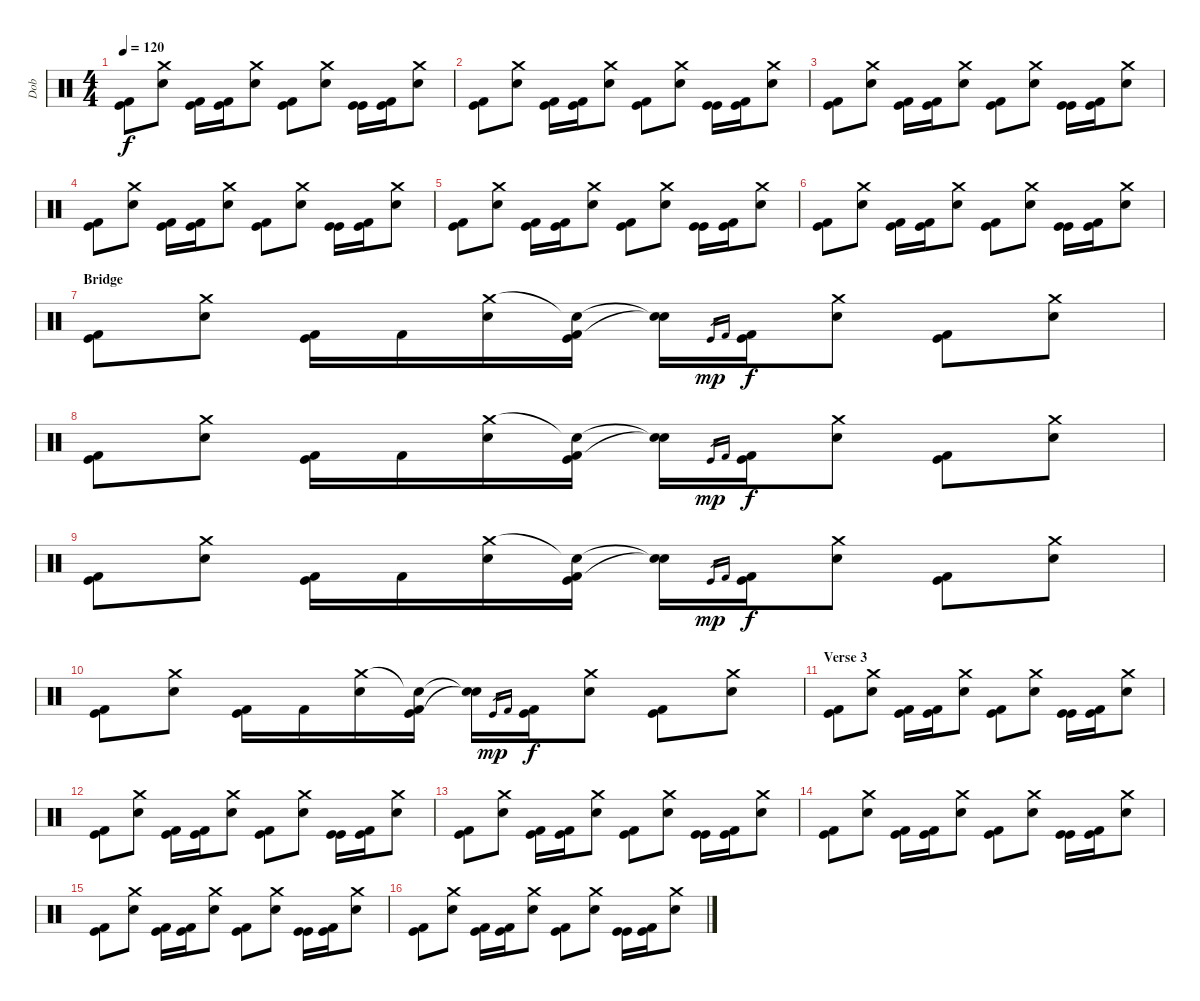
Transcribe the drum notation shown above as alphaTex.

\track ("Dob" "Dob") {instrument percussion}
\staff {score}
\articulation defaults
\ts (4 4)
\tempo 120
\clef neutral
\ks c
("Kick (hit)" "Kick (hit) 2").8{dy f} ("Crash medium (hit)" "Snare (hit) 2").8 ("Kick (hit)" "Kick (hit) 2").16 ("Kick (hit)" "Kick (hit) 2").16 ("Crash medium (hit)" "Snare (hit) 2").8 ("Kick (hit)" "Kick (hit) 2").8 ("Crash medium (hit)" "Snare (hit) 2").8 ("Kick (hit)" "Kick (hit)").16 ("Kick (hit)" "Kick (hit) 2").16 ("Crash medium (hit)" "Snare (hit) 2").8 |
("Kick (hit)" "Kick (hit) 2").8 ("Crash medium (hit)" "Snare (hit) 2").8 ("Kick (hit)" "Kick (hit) 2").16 ("Kick (hit)" "Kick (hit) 2").16 ("Crash medium (hit)" "Snare (hit) 2").8 ("Kick (hit)" "Kick (hit) 2").8 ("Crash medium (hit)" "Snare (hit) 2").8 ("Kick (hit)" "Kick (hit)").16 ("Kick (hit)" "Kick (hit) 2").16 ("Crash medium (hit)" "Snare (hit) 2").8 |
("Kick (hit)" "Kick (hit) 2").8 ("Crash medium (hit)" "Snare (hit) 2").8 ("Kick (hit)" "Kick (hit) 2").16 ("Kick (hit)" "Kick (hit) 2").16 ("Crash medium (hit)" "Snare (hit) 2").8 ("Kick (hit)" "Kick (hit) 2").8 ("Crash medium (hit)" "Snare (hit) 2").8 ("Kick (hit)" "Kick (hit)").16 ("Kick (hit)" "Kick (hit) 2").16 ("Crash medium (hit)" "Snare (hit) 2").8 |
("Kick (hit)" "Kick (hit) 2").8 ("Crash medium (hit)" "Snare (hit) 2").8 ("Kick (hit)" "Kick (hit) 2").16 ("Kick (hit)" "Kick (hit) 2").16 ("Crash medium (hit)" "Snare (hit) 2").8 ("Kick (hit)" "Kick (hit) 2").8 ("Crash medium (hit)" "Snare (hit) 2").8 ("Kick (hit)" "Kick (hit)").16 ("Kick (hit)" "Kick (hit) 2").16 ("Crash medium (hit)" "Snare (hit) 2").8 |
("Kick (hit)" "Kick (hit) 2").8 ("Crash medium (hit)" "Snare (hit) 2").8 ("Kick (hit)" "Kick (hit) 2").16 ("Kick (hit)" "Kick (hit) 2").16 ("Crash medium (hit)" "Snare (hit) 2").8 ("Kick (hit)" "Kick (hit) 2").8 ("Crash medium (hit)" "Snare (hit) 2").8 ("Kick (hit)" "Kick (hit)").16 ("Kick (hit)" "Kick (hit) 2").16 ("Crash medium (hit)" "Snare (hit) 2").8 |
("Kick (hit)" "Kick (hit) 2").8 ("Crash medium (hit)" "Snare (hit) 2").8 ("Kick (hit)" "Kick (hit) 2").16 ("Kick (hit)" "Kick (hit) 2").16 ("Crash medium (hit)" "Snare (hit) 2").8 ("Kick (hit)" "Kick (hit) 2").8 ("Crash medium (hit)" "Snare (hit) 2").8 ("Kick (hit)" "Kick (hit)").16 ("Kick (hit)" "Kick (hit) 2").16 ("Crash medium (hit)" "Snare (hit) 2").8 |
\section ("" "Bridge")
("Kick (hit)" "Kick (hit) 2").8 ("Crash medium (hit)" "Snare (hit) 2").8 ("Kick (hit)" "Kick (hit) 2").16 "Kick (hit) 2".16 ("Crash medium (hit)" "Snare (hit) 2").16 ("Snare (hit)"{t} "Kick (hit)" "Kick (hit) 2").16 ("Snare (hit)"{t} "Snare (hit)"{t}).16 "Kick (hit)".16{gr dy mp} "Kick (hit) 2".16{gr} ("Kick (hit)" "Kick (hit) 2").16{dy f} ("Crash medium (hit)" "Snare (hit) 2").8 ("Kick (hit)" "Kick (hit) 2").8 ("Crash medium (hit)" "Snare (hit) 2").8 |
("Kick (hit)" "Kick (hit) 2").8 ("Crash medium (hit)" "Snare (hit) 2").8 ("Kick (hit)" "Kick (hit) 2").16 "Kick (hit) 2".16 ("Crash medium (hit)" "Snare (hit) 2").16 ("Snare (hit)"{t} "Kick (hit)" "Kick (hit) 2").16 ("Snare (hit)"{t} "Snare (hit)"{t}).16 "Kick (hit)".16{gr dy mp} "Kick (hit) 2".16{gr} ("Kick (hit)" "Kick (hit) 2").16{dy f} ("Crash medium (hit)" "Snare (hit) 2").8 ("Kick (hit)" "Kick (hit) 2").8 ("Crash medium (hit)" "Snare (hit) 2").8 |
("Kick (hit)" "Kick (hit) 2").8 ("Crash medium (hit)" "Snare (hit) 2").8 ("Kick (hit)" "Kick (hit) 2").16 "Kick (hit) 2".16 ("Crash medium (hit)" "Snare (hit) 2").16 ("Snare (hit)"{t} "Kick (hit)" "Kick (hit) 2").16 ("Snare (hit)"{t} "Snare (hit)"{t}).16 "Kick (hit)".16{gr dy mp} "Kick (hit) 2".16{gr} ("Kick (hit)" "Kick (hit) 2").16{dy f} ("Crash medium (hit)" "Snare (hit) 2").8 ("Kick (hit)" "Kick (hit) 2").8 ("Crash medium (hit)" "Snare (hit) 2").8 |
("Kick (hit)" "Kick (hit) 2").8 ("Crash medium (hit)" "Snare (hit) 2").8 ("Kick (hit)" "Kick (hit) 2").16 "Kick (hit) 2".16 ("Crash medium (hit)" "Snare (hit) 2").16 ("Snare (hit)"{t} "Kick (hit)" "Kick (hit) 2").16 ("Snare (hit)"{t} "Snare (hit)"{t}).16 "Kick (hit)".16{gr dy mp} "Kick (hit) 2".16{gr} ("Kick (hit)" "Kick (hit) 2").16{dy f} ("Crash medium (hit)" "Snare (hit) 2").8 ("Kick (hit)" "Kick (hit) 2").8 ("Crash medium (hit)" "Snare (hit) 2").8 |
\section ("" "Verse 3")
("Kick (hit)" "Kick (hit) 2").8 ("Crash medium (hit)" "Snare (hit) 2").8 ("Kick (hit)" "Kick (hit) 2").16 ("Kick (hit)" "Kick (hit) 2").16 ("Crash medium (hit)" "Snare (hit) 2").8 ("Kick (hit)" "Kick (hit) 2").8 ("Crash medium (hit)" "Snare (hit) 2").8 ("Kick (hit)" "Kick (hit)").16 ("Kick (hit)" "Kick (hit) 2").16 ("Crash medium (hit)" "Snare (hit) 2").8 |
("Kick (hit)" "Kick (hit) 2").8 ("Crash medium (hit)" "Snare (hit) 2").8 ("Kick (hit)" "Kick (hit) 2").16 ("Kick (hit)" "Kick (hit) 2").16 ("Crash medium (hit)" "Snare (hit) 2").8 ("Kick (hit)" "Kick (hit) 2").8 ("Crash medium (hit)" "Snare (hit) 2").8 ("Kick (hit)" "Kick (hit)").16 ("Kick (hit)" "Kick (hit) 2").16 ("Crash medium (hit)" "Snare (hit) 2").8 |
("Kick (hit)" "Kick (hit) 2").8 ("Crash medium (hit)" "Snare (hit) 2").8 ("Kick (hit)" "Kick (hit) 2").16 ("Kick (hit)" "Kick (hit) 2").16 ("Crash medium (hit)" "Snare (hit) 2").8 ("Kick (hit)" "Kick (hit) 2").8 ("Crash medium (hit)" "Snare (hit) 2").8 ("Kick (hit)" "Kick (hit)").16 ("Kick (hit)" "Kick (hit) 2").16 ("Crash medium (hit)" "Snare (hit) 2").8 |
("Kick (hit)" "Kick (hit) 2").8 ("Crash medium (hit)" "Snare (hit) 2").8 ("Kick (hit)" "Kick (hit) 2").16 ("Kick (hit)" "Kick (hit) 2").16 ("Crash medium (hit)" "Snare (hit) 2").8 ("Kick (hit)" "Kick (hit) 2").8 ("Crash medium (hit)" "Snare (hit) 2").8 ("Kick (hit)" "Kick (hit)").16 ("Kick (hit)" "Kick (hit) 2").16 ("Crash medium (hit)" "Snare (hit) 2").8 |
("Kick (hit)" "Kick (hit) 2").8 ("Crash medium (hit)" "Snare (hit) 2").8 ("Kick (hit)" "Kick (hit) 2").16 ("Kick (hit)" "Kick (hit) 2").16 ("Crash medium (hit)" "Snare (hit) 2").8 ("Kick (hit)" "Kick (hit) 2").8 ("Crash medium (hit)" "Snare (hit) 2").8 ("Kick (hit)" "Kick (hit)").16 ("Kick (hit)" "Kick (hit) 2").16 ("Crash medium (hit)" "Snare (hit) 2").8 |
("Kick (hit)" "Kick (hit) 2").8 ("Crash medium (hit)" "Snare (hit) 2").8 ("Kick (hit)" "Kick (hit) 2").16 ("Kick (hit)" "Kick (hit) 2").16 ("Crash medium (hit)" "Snare (hit) 2").8 ("Kick (hit)" "Kick (hit) 2").8 ("Crash medium (hit)" "Snare (hit) 2").8 ("Kick (hit)" "Kick (hit)").16 ("Kick (hit)" "Kick (hit) 2").16 ("Crash medium (hit)" "Snare (hit) 2").8
